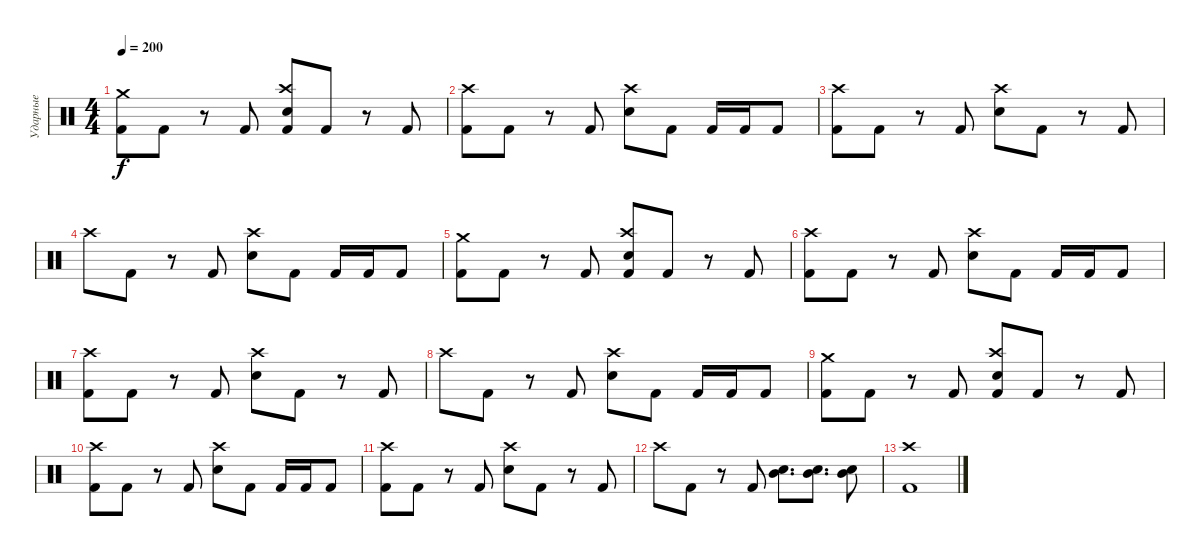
\track ("Ударные" "Ударные") {instrument percussion}
\staff {score}
\articulation defaults
\ts (4 4)
\tempo 200
\clef neutral
\ks c
("Crash medium (hit)" "Kick (hit) 2").8{dy f} "Kick (hit) 2".8 r.8 "Kick (hit) 2".8 ("Crash high (hit)" "Electric Snare (hit)" "Kick (hit) 2").8 "Kick (hit) 2".8 r.8 "Kick (hit) 2".8 |
("Crash high (hit)" "Kick (hit) 2").8 "Kick (hit) 2".8 r.8 "Kick (hit) 2".8 ("Crash high (hit)" "Electric Snare (hit)").8 "Kick (hit) 2".8 "Kick (hit) 2".16 "Kick (hit) 2".16 "Kick (hit) 2".8 |
("Crash high (hit)" "Kick (hit) 2").8 "Kick (hit) 2".8 r.8 "Kick (hit) 2".8 ("Crash high (hit)" "Electric Snare (hit)").8 "Kick (hit) 2".8 r.8 "Kick (hit) 2".8 |
"Crash high (hit)".8 "Kick (hit) 2".8 r.8 "Kick (hit) 2".8 ("Crash high (hit)" "Electric Snare (hit)").8 "Kick (hit) 2".8 "Kick (hit) 2".16 "Kick (hit) 2".16 "Kick (hit) 2".8 |
("Crash medium (hit)" "Kick (hit) 2").8 "Kick (hit) 2".8 r.8 "Kick (hit) 2".8 ("Crash high (hit)" "Electric Snare (hit)" "Kick (hit) 2").8 "Kick (hit) 2".8 r.8 "Kick (hit) 2".8 |
("Crash high (hit)" "Kick (hit) 2").8 "Kick (hit) 2".8 r.8 "Kick (hit) 2".8 ("Crash high (hit)" "Electric Snare (hit)").8 "Kick (hit) 2".8 "Kick (hit) 2".16 "Kick (hit) 2".16 "Kick (hit) 2".8 |
("Crash high (hit)" "Kick (hit) 2").8 "Kick (hit) 2".8 r.8 "Kick (hit) 2".8 ("Crash high (hit)" "Electric Snare (hit)").8 "Kick (hit) 2".8 r.8 "Kick (hit) 2".8 |
"Crash high (hit)".8 "Kick (hit) 2".8 r.8 "Kick (hit) 2".8 ("Crash high (hit)" "Electric Snare (hit)").8 "Kick (hit) 2".8 "Kick (hit) 2".16 "Kick (hit) 2".16 "Kick (hit) 2".8 |
("Crash medium (hit)" "Kick (hit) 2").8 "Kick (hit) 2".8 r.8 "Kick (hit) 2".8 ("Crash high (hit)" "Electric Snare (hit)" "Kick (hit) 2").8 "Kick (hit) 2".8 r.8 "Kick (hit) 2".8 |
("Crash high (hit)" "Kick (hit) 2").8 "Kick (hit) 2".8 r.8 "Kick (hit) 2".8 ("Crash high (hit)" "Electric Snare (hit)").8 "Kick (hit) 2".8 "Kick (hit) 2".16 "Kick (hit) 2".16 "Kick (hit) 2".8 |
("Crash high (hit)" "Kick (hit) 2").8 "Kick (hit) 2".8 r.8 "Kick (hit) 2".8 ("Crash high (hit)" "Electric Snare (hit)").8 "Kick (hit) 2".8 r.8 "Kick (hit) 2".8 |
"Crash high (hit)".8 "Kick (hit) 2".8 r.8 "Kick (hit) 2".8 ("Mid Tom (hit)" "Electric Snare (hit)").8{d} ("Mid Tom (hit)" "Electric Snare (hit)").8{d} ("Mid Tom (hit)" "Electric Snare (hit)").8 |
("Crash high (hit)" "Kick (hit) 2").1
